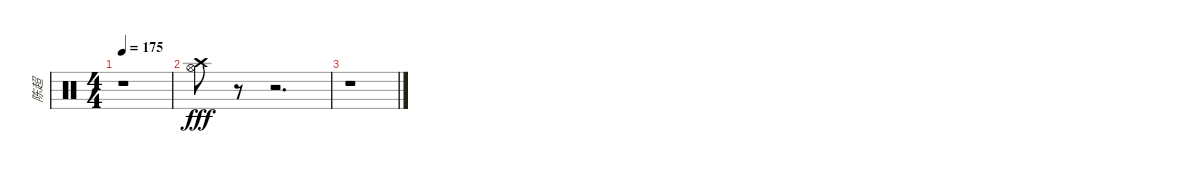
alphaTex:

\track ("陈超" "陈超") {instrument percussion}
\staff {score}
\articulation defaults
\ts (4 4)
\tempo 175
\clef neutral
\ks c
r.1{dy fff} |
("Crash high (hit)" "Hi-Hat (open)").8 r.8 r.2{d} |
r.1
